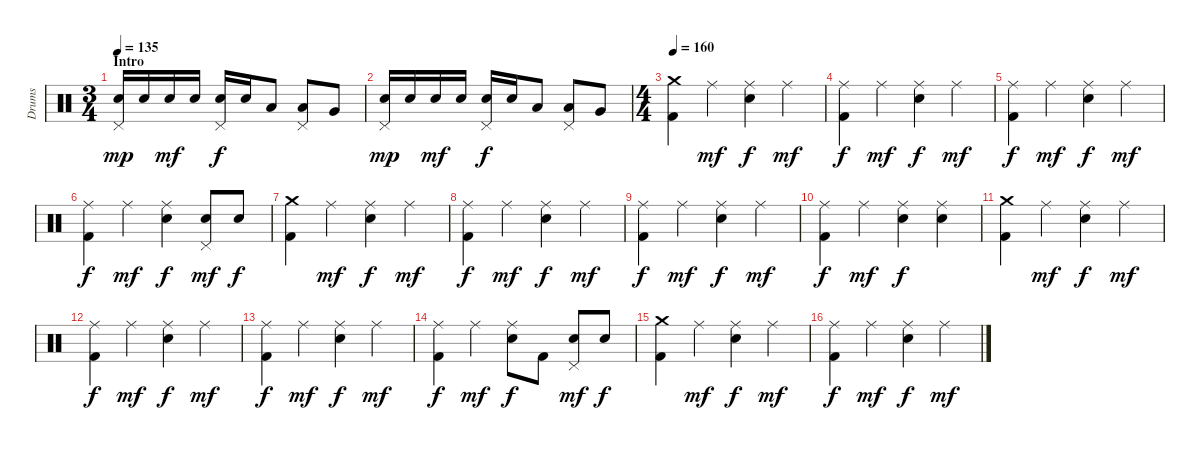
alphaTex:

\track ("Drums" "Drums") {instrument percussion}
\staff {score}
\articulation defaults
\ts (3 4)
\section ("" "Intro")
\tempo 135
\clef neutral
\ks c
("Pedal Hi-Hat (hit)" "Snare (hit) 2").16{dy mp} "Snare (hit) 2".16 "Snare (hit) 2".16{dy mf} "Snare (hit) 2".16 ("Pedal Hi-Hat (hit)" "Snare (hit) 2").16{dy f} "Snare (hit) 2".16 "Low Tom (hit)".8 ("Pedal Hi-Hat (hit)" "Low Tom (hit)").8 "Very Low Tom (hit)".8 |
("Pedal Hi-Hat (hit)" "Snare (hit) 2").16{dy mp} "Snare (hit) 2".16 "Snare (hit) 2".16{dy mf} "Snare (hit) 2".16 ("Pedal Hi-Hat (hit)" "Snare (hit) 2").16{dy f} "Snare (hit) 2".16 "Low Tom (hit)".8 ("Pedal Hi-Hat (hit)" "Low Tom (hit)").8 "Very Low Tom (hit)".8 |
\ts (4 4)
\tempo 160
("Crash medium (hit)" "Kick (hit) 2").4 "Ride (middle)".4{dy mf} ("Ride (middle)" "Snare (hit) 2").4{dy f} "Ride (middle)".4{dy mf} |
("Ride (middle)" "Kick (hit) 2").4{dy f} "Ride (middle)".4{dy mf} ("Ride (middle)" "Snare (hit) 2").4{dy f} "Ride (middle)".4{dy mf} |
("Ride (middle)" "Kick (hit) 2").4{dy f} "Ride (middle)".4{dy mf} ("Ride (middle)" "Snare (hit) 2").4{dy f} "Ride (middle)".4{dy mf} |
("Ride (middle)" "Kick (hit) 2").4{dy f} "Ride (middle)".4{dy mf} ("Ride (middle)" "Snare (hit) 2").4{dy f} ("Pedal Hi-Hat (hit)" "Snare (hit) 2").8{dy mf} "Snare (hit) 2".8{dy f} |
("Crash medium (hit)" "Kick (hit) 2").4 "Ride (middle)".4{dy mf} ("Ride (middle)" "Snare (hit) 2").4{dy f} "Ride (middle)".4{dy mf} |
("Ride (middle)" "Kick (hit) 2").4{dy f} "Ride (middle)".4{dy mf} ("Ride (middle)" "Snare (hit) 2").4{dy f} "Ride (middle)".4{dy mf} |
("Ride (middle)" "Kick (hit) 2").4{dy f} "Ride (middle)".4{dy mf} ("Ride (middle)" "Snare (hit) 2").4{dy f} "Ride (middle)".4{dy mf} |
("Ride (middle)" "Kick (hit) 2").4{dy f} "Ride (middle)".4{dy mf} ("Ride (middle)" "Snare (hit) 2").4{dy f} ("Ride (middle)" "Snare (hit) 2").4 |
("Crash medium (hit)" "Kick (hit) 2").4 "Ride (middle)".4{dy mf} ("Ride (middle)" "Snare (hit) 2").4{dy f} "Ride (middle)".4{dy mf} |
("Ride (middle)" "Kick (hit) 2").4{dy f} "Ride (middle)".4{dy mf} ("Ride (middle)" "Snare (hit) 2").4{dy f} "Ride (middle)".4{dy mf} |
("Ride (middle)" "Kick (hit) 2").4{dy f} "Ride (middle)".4{dy mf} ("Ride (middle)" "Snare (hit) 2").4{dy f} "Ride (middle)".4{dy mf} |
("Ride (middle)" "Kick (hit) 2").4{dy f} "Ride (middle)".4{dy mf} ("Ride (middle)" "Snare (hit) 2").8{dy f} "Kick (hit) 2".8 ("Pedal Hi-Hat (hit)" "Snare (hit) 2").8{dy mf} "Snare (hit) 2".8{dy f} |
("Crash medium (hit)" "Kick (hit) 2").4 "Ride (middle)".4{dy mf} ("Ride (middle)" "Snare (hit) 2").4{dy f} "Ride (middle)".4{dy mf} |
("Ride (middle)" "Kick (hit) 2").4{dy f} "Ride (middle)".4{dy mf} ("Ride (middle)" "Snare (hit) 2").4{dy f} "Ride (middle)".4{dy mf}
